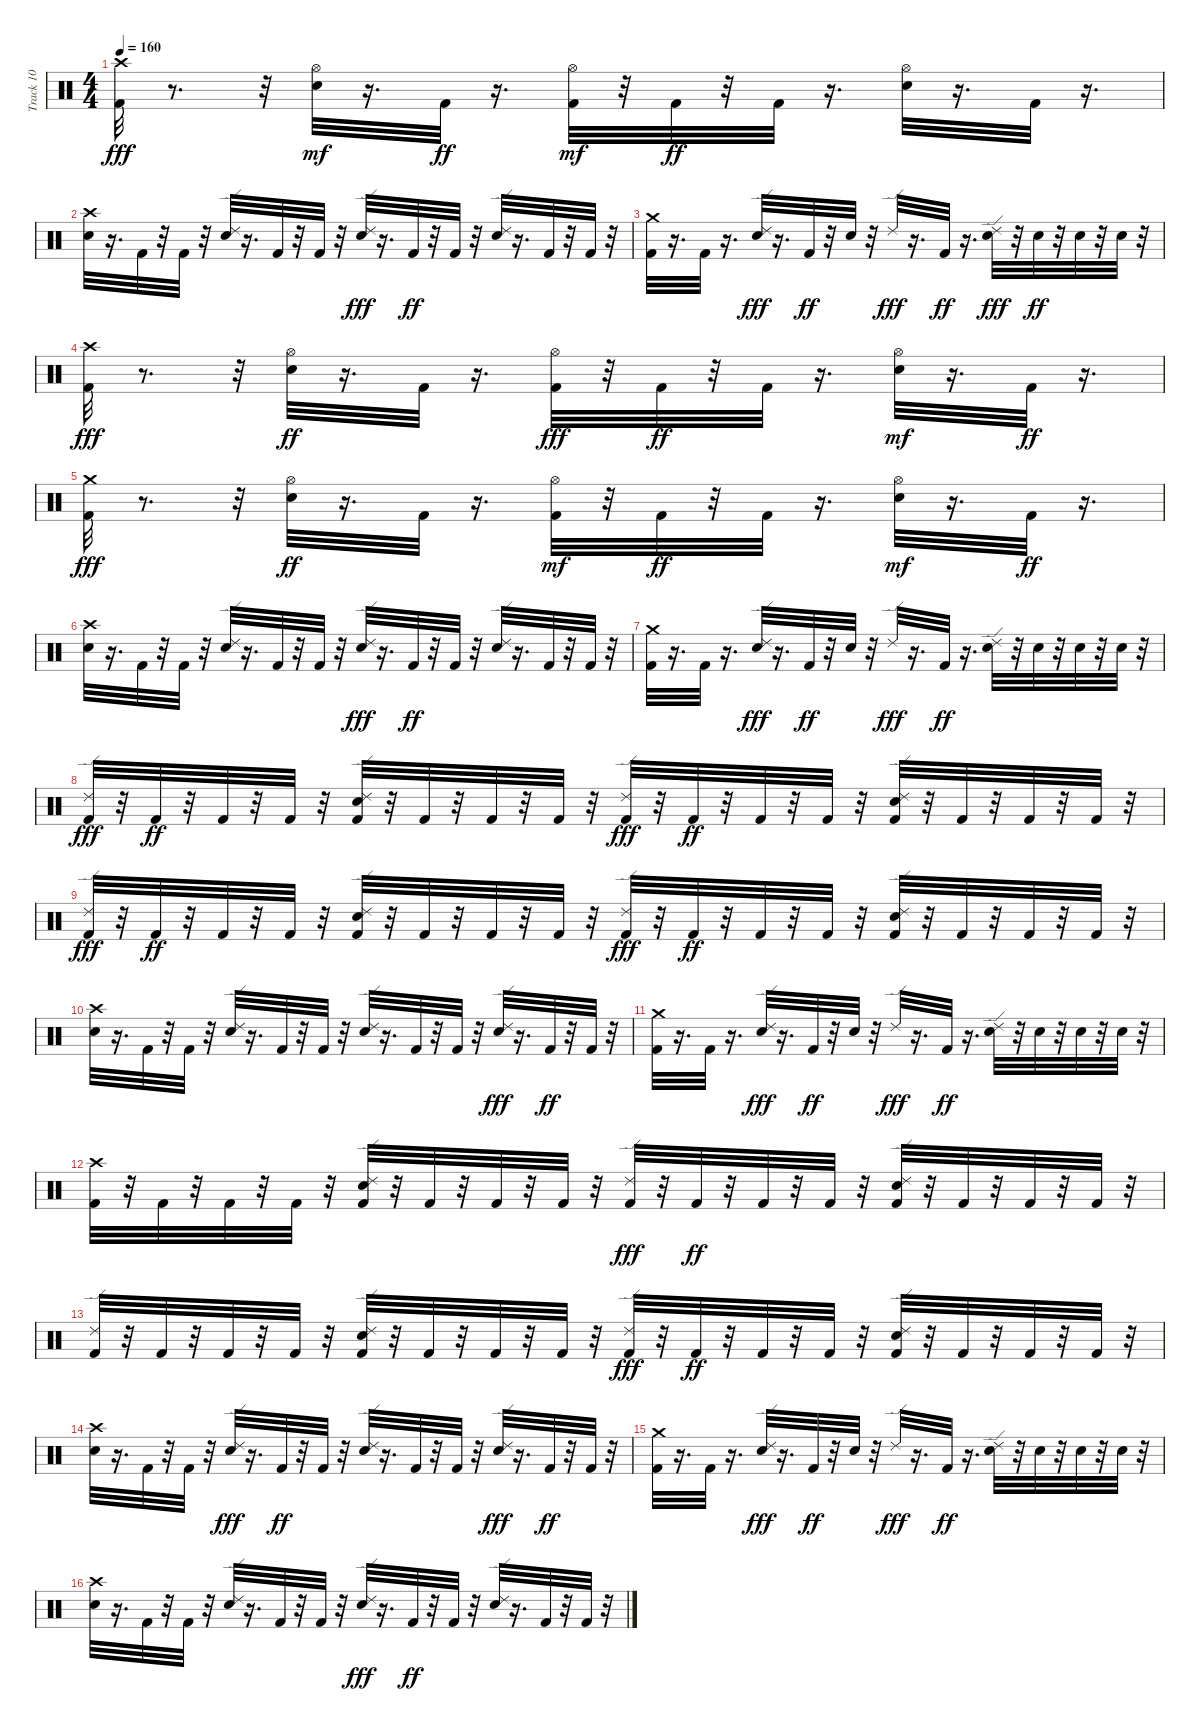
\track ("Track 10" "Track 10") {instrument percussion}
\staff {score}
\articulation defaults
\ts (4 4)
\tempo 160
\clef neutral
\ks c
("Kick (hit) 2" "Crash high (hit)").32{dy fff} r.8{d} r.32 ("Electric Snare (hit)" "Hi-Hat (open)").32{dy mf} r.16{d} "Kick (hit) 2".32{dy ff} r.16{d} ("Kick (hit) 2" "Hi-Hat (open)").32{dy mf} r.32 "Kick (hit) 2".32{dy ff} r.32 "Kick (hit) 2".32 r.16{d} ("Hi-Hat (open)" "Electric Snare (hit)").32 r.16{d} "Kick (hit) 2".32 r.16{d} |
("Electric Snare (hit)" "Crash high (hit)").32 r.16{d} "Kick (hit) 2".32 r.32 "Kick (hit) 2".32 r.32 ("Ride (edge) 2" "Electric Snare (hit)").32 r.16{d} "Kick (hit) 2".32 r.32 "Kick (hit) 2".32 r.32 ("Electric Snare (hit)" "Ride (edge) 2").32{dy fff} r.16{d} "Kick (hit) 2".32{dy ff} r.32 "Kick (hit) 2".32 r.32 ("Ride (edge) 2" "Electric Snare (hit)").32 r.16{d} "Kick (hit) 2".32 r.32 "Kick (hit) 2".32 r.32 |
("Kick (hit) 2" "Crash medium (hit)").32 r.16{d} "Kick (hit) 2".32 r.16{d} ("Electric Snare (hit)" "Ride (edge) 2").32{dy fff} r.16{d} "Kick (hit) 2".32{dy ff} r.32 "Electric Snare (hit)".32 r.32 "Ride (edge) 2".32{dy fff} r.16{d} "Kick (hit) 2".32{dy ff} r.16{d} ("Electric Snare (hit)" "Ride (edge) 2").32{dy fff} r.32 "Electric Snare (hit)".32{dy ff} r.32 "Electric Snare (hit)".32 r.32 "Electric Snare (hit)".32 r.32 |
("Crash high (hit)" "Kick (hit) 2").32{dy fff} r.8{d} r.32 ("Hi-Hat (open)" "Electric Snare (hit)").32{dy ff} r.16{d} "Kick (hit) 2".32 r.16{d} ("Hi-Hat (open)" "Kick (hit) 2").32{dy fff} r.32 "Kick (hit) 2".32{dy ff} r.32 "Kick (hit) 2".32 r.16{d} ("Electric Snare (hit)" "Hi-Hat (open)").32{dy mf} r.16{d} "Kick (hit) 2".32{dy ff} r.16{d} |
("Kick (hit) 2" "Crash medium (hit)").32{dy fff} r.8{d} r.32 ("Hi-Hat (open)" "Electric Snare (hit)").32{dy ff} r.16{d} "Kick (hit) 2".32 r.16{d} ("Kick (hit) 2" "Hi-Hat (open)").32{dy mf} r.32 "Kick (hit) 2".32{dy ff} r.32 "Kick (hit) 2".32 r.16{d} ("Electric Snare (hit)" "Hi-Hat (open)").32{dy mf} r.16{d} "Kick (hit) 2".32{dy ff} r.16{d} |
("Crash high (hit)" "Electric Snare (hit)").32 r.16{d} "Kick (hit) 2".32 r.32 "Kick (hit) 2".32 r.32 ("Ride (edge) 2" "Electric Snare (hit)").32 r.16{d} "Kick (hit) 2".32 r.32 "Kick (hit) 2".32 r.32 ("Electric Snare (hit)" "Ride (edge) 2").32{dy fff} r.16{d} "Kick (hit) 2".32{dy ff} r.32 "Kick (hit) 2".32 r.32 ("Ride (edge) 2" "Electric Snare (hit)").32 r.16{d} "Kick (hit) 2".32 r.32 "Kick (hit) 2".32 r.32 |
("Kick (hit) 2" "Crash medium (hit)").32 r.16{d} "Kick (hit) 2".32 r.16{d} ("Electric Snare (hit)" "Ride (edge) 2").32{dy fff} r.16{d} "Kick (hit) 2".32{dy ff} r.32 "Electric Snare (hit)".32 r.32 "Ride (edge) 2".32{dy fff} r.16{d} "Kick (hit) 2".32{dy ff} r.16{d} ("Ride (edge) 2" "Electric Snare (hit)").32 r.32 "Electric Snare (hit)".32 r.32 "Electric Snare (hit)".32 r.32 "Electric Snare (hit)".32 r.32 |
("Kick (hit) 2" "Ride (edge) 2").32{dy fff} r.32 "Kick (hit) 2".32{dy ff} r.32 "Kick (hit) 2".32 r.32 "Kick (hit) 2".32 r.32 ("Ride (edge) 2" "Electric Snare (hit)" "Kick (hit) 2").32 r.32 "Kick (hit) 2".32 r.32 "Kick (hit) 2".32 r.32 "Kick (hit) 2".32 r.32 ("Kick (hit) 2" "Ride (edge) 2").32{dy fff} r.32 "Kick (hit) 2".32{dy ff} r.32 "Kick (hit) 2".32 r.32 "Kick (hit) 2".32 r.32 ("Electric Snare (hit)" "Ride (edge) 2" "Kick (hit) 2").32 r.32 "Kick (hit) 2".32 r.32 "Kick (hit) 2".32 r.32 "Kick (hit) 2".32 r.32 |
("Kick (hit) 2" "Ride (edge) 2").32{dy fff} r.32 "Kick (hit) 2".32{dy ff} r.32 "Kick (hit) 2".32 r.32 "Kick (hit) 2".32 r.32 ("Electric Snare (hit)" "Ride (edge) 2" "Kick (hit) 2").32 r.32 "Kick (hit) 2".32 r.32 "Kick (hit) 2".32 r.32 "Kick (hit) 2".32 r.32 ("Kick (hit) 2" "Ride (edge) 2").32{dy fff} r.32 "Kick (hit) 2".32{dy ff} r.32 "Kick (hit) 2".32 r.32 "Kick (hit) 2".32 r.32 ("Electric Snare (hit)" "Ride (edge) 2" "Kick (hit) 2").32 r.32 "Kick (hit) 2".32 r.32 "Kick (hit) 2".32 r.32 "Kick (hit) 2".32 r.32 |
("Crash high (hit)" "Electric Snare (hit)").32 r.16{d} "Kick (hit) 2".32 r.32 "Kick (hit) 2".32 r.32 ("Ride (edge) 2" "Electric Snare (hit)").32 r.16{d} "Kick (hit) 2".32 r.32 "Kick (hit) 2".32 r.32 ("Ride (edge) 2" "Electric Snare (hit)").32 r.16{d} "Kick (hit) 2".32 r.32 "Kick (hit) 2".32 r.32 ("Electric Snare (hit)" "Ride (edge) 2").32{dy fff} r.16{d} "Kick (hit) 2".32{dy ff} r.32 "Kick (hit) 2".32 r.32 |
("Kick (hit) 2" "Crash medium (hit)").32 r.16{d} "Kick (hit) 2".32 r.16{d} ("Electric Snare (hit)" "Ride (edge) 2").32{dy fff} r.16{d} "Kick (hit) 2".32{dy ff} r.32 "Electric Snare (hit)".32 r.32 "Ride (edge) 2".32{dy fff} r.16{d} "Kick (hit) 2".32{dy ff} r.16{d} ("Ride (edge) 2" "Electric Snare (hit)").32 r.32 "Electric Snare (hit)".32 r.32 "Electric Snare (hit)".32 r.32 "Electric Snare (hit)".32 r.32 |
("Kick (hit) 2" "Crash high (hit)").32 r.32 "Kick (hit) 2".32 r.32 "Kick (hit) 2".32 r.32 "Kick (hit) 2".32 r.32 ("Ride (edge) 2" "Electric Snare (hit)" "Kick (hit) 2").32 r.32 "Kick (hit) 2".32 r.32 "Kick (hit) 2".32 r.32 "Kick (hit) 2".32 r.32 ("Kick (hit) 2" "Ride (edge) 2").32{dy fff} r.32 "Kick (hit) 2".32{dy ff} r.32 "Kick (hit) 2".32 r.32 "Kick (hit) 2".32 r.32 ("Electric Snare (hit)" "Ride (edge) 2" "Kick (hit) 2").32 r.32 "Kick (hit) 2".32 r.32 "Kick (hit) 2".32 r.32 "Kick (hit) 2".32 r.32 |
("Ride (edge) 2" "Kick (hit) 2").32 r.32 "Kick (hit) 2".32 r.32 "Kick (hit) 2".32 r.32 "Kick (hit) 2".32 r.32 ("Electric Snare (hit)" "Ride (edge) 2" "Kick (hit) 2").32 r.32 "Kick (hit) 2".32 r.32 "Kick (hit) 2".32 r.32 "Kick (hit) 2".32 r.32 ("Kick (hit) 2" "Ride (edge) 2").32{dy fff} r.32 "Kick (hit) 2".32{dy ff} r.32 "Kick (hit) 2".32 r.32 "Kick (hit) 2".32 r.32 ("Ride (edge) 2" "Electric Snare (hit)" "Kick (hit) 2").32 r.32 "Kick (hit) 2".32 r.32 "Kick (hit) 2".32 r.32 "Kick (hit) 2".32 r.32 |
("Crash high (hit)" "Electric Snare (hit)").32 r.16{d} "Kick (hit) 2".32 r.32 "Kick (hit) 2".32 r.32 ("Electric Snare (hit)" "Ride (edge) 2").32{dy fff} r.16{d} "Kick (hit) 2".32{dy ff} r.32 "Kick (hit) 2".32 r.32 ("Ride (edge) 2" "Electric Snare (hit)").32 r.16{d} "Kick (hit) 2".32 r.32 "Kick (hit) 2".32 r.32 ("Electric Snare (hit)" "Ride (edge) 2").32{dy fff} r.16{d} "Kick (hit) 2".32{dy ff} r.32 "Kick (hit) 2".32 r.32 |
("Crash medium (hit)" "Kick (hit) 2").32 r.16{d} "Kick (hit) 2".32 r.16{d} ("Electric Snare (hit)" "Ride (edge) 2").32{dy fff} r.16{d} "Kick (hit) 2".32{dy ff} r.32 "Electric Snare (hit)".32 r.32 "Ride (edge) 2".32{dy fff} r.16{d} "Kick (hit) 2".32{dy ff} r.16{d} ("Ride (edge) 2" "Electric Snare (hit)").32 r.32 "Electric Snare (hit)".32 r.32 "Electric Snare (hit)".32 r.32 "Electric Snare (hit)".32 r.32 |
("Electric Snare (hit)" "Crash high (hit)").32 r.16{d} "Kick (hit) 2".32 r.32 "Kick (hit) 2".32 r.32 ("Ride (edge) 2" "Electric Snare (hit)").32 r.16{d} "Kick (hit) 2".32 r.32 "Kick (hit) 2".32 r.32 ("Electric Snare (hit)" "Ride (edge) 2").32{dy fff} r.16{d} "Kick (hit) 2".32{dy ff} r.32 "Kick (hit) 2".32 r.32 ("Ride (edge) 2" "Electric Snare (hit)").32 r.16{d} "Kick (hit) 2".32 r.32 "Kick (hit) 2".32 r.32
